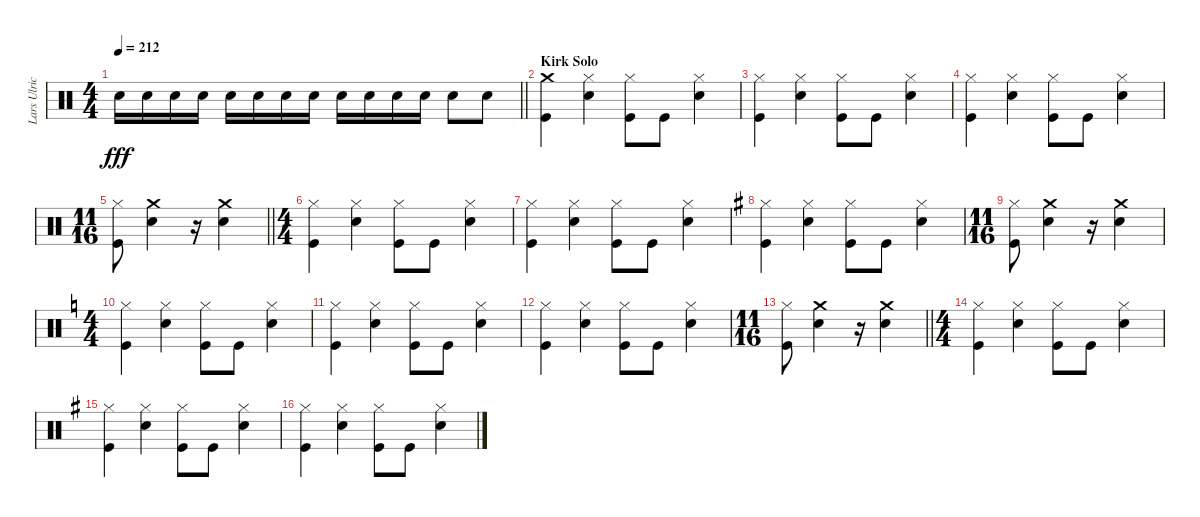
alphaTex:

\track ("Lars Ulrich" "Lars Ulric") {instrument percussion}
\staff {score}
\articulation defaults
\ts (4 4)
\tempo 212
\clef neutral
\barLineRight lightlight
\ks c "Snare (hit) 2".16{dy fff} "Snare (hit) 2".16 "Snare (hit) 2".16 "Snare (hit) 2".16 "Snare (hit) 2".16 "Snare (hit) 2".16 "Snare (hit) 2".16 "Snare (hit) 2".16 "Snare (hit) 2".16 "Snare (hit) 2".16 "Snare (hit) 2".16 "Snare (hit) 2".16 "Snare (hit) 2".8 "Snare (hit) 2".8
|
\section ("" "Kirk Solo")
("Kick (hit)" "Crash medium (hit)").4 ("Snare (hit) 2" "Hi-Hat (closed)").4 ("Hi-Hat (closed)" "Kick (hit)").8 "Kick (hit)".8 ("Snare (hit) 2" "Hi-Hat (closed)").4 |
("Hi-Hat (closed)" "Kick (hit)").4 ("Snare (hit) 2" "Hi-Hat (closed)").4 ("Kick (hit)" "Hi-Hat (closed)").8 "Kick (hit)".8 ("Snare (hit) 2" "Hi-Hat (closed)").4 |
("Kick (hit)" "Hi-Hat (closed)").4 ("Snare (hit) 2" "Hi-Hat (closed)").4 ("Kick (hit)" "Hi-Hat (closed)").8 "Kick (hit)".8 ("Snare (hit) 2" "Hi-Hat (closed)").4 |
\ts (11 16)
\barLineRight lightlight
("Hi-Hat (closed)" "Kick (hit)").8 ("Snare (hit) 2" "Crash medium (hit)").4 r.16 ("Crash medium (hit)" "Snare (hit) 2").4 |
\ts (4 4)
("Hi-Hat (closed)" "Kick (hit)").4 ("Snare (hit) 2" "Hi-Hat (closed)").4 ("Kick (hit)" "Hi-Hat (closed)").8 "Kick (hit)".8 ("Snare (hit) 2" "Hi-Hat (closed)").4 |
("Kick (hit)" "Hi-Hat (closed)").4 ("Snare (hit) 2" "Hi-Hat (closed)").4 ("Hi-Hat (closed)" "Kick (hit)").8 "Kick (hit)".8 ("Snare (hit) 2" "Hi-Hat (closed)").4 |
\ks g
("Hi-Hat (closed)" "Kick (hit)").4 ("Snare (hit) 2" "Hi-Hat (closed)").4 ("Kick (hit)" "Hi-Hat (closed)").8 "Kick (hit)".8 ("Hi-Hat (closed)" "Snare (hit) 2").4 |
\ts (11 16)
("Hi-Hat (closed)" "Kick (hit)").8 ("Snare (hit) 2" "Crash medium (hit)").4 r.16 ("Snare (hit) 2" "Crash medium (hit)").4 |
\ts (4 4)
\ks c
("Hi-Hat (closed)" "Kick (hit)").4 ("Snare (hit) 2" "Hi-Hat (closed)").4 ("Kick (hit)" "Hi-Hat (closed)").8 "Kick (hit)".8 ("Snare (hit) 2" "Hi-Hat (closed)").4 |
("Hi-Hat (closed)" "Kick (hit)").4 ("Snare (hit) 2" "Hi-Hat (closed)").4 ("Kick (hit)" "Hi-Hat (closed)").8 "Kick (hit)".8 ("Snare (hit) 2" "Hi-Hat (closed)").4 |
("Kick (hit)" "Hi-Hat (closed)").4 ("Snare (hit) 2" "Hi-Hat (closed)").4 ("Kick (hit)" "Hi-Hat (closed)").8 "Kick (hit)".8 ("Snare (hit) 2" "Hi-Hat (closed)").4 |
\ts (11 16)
\barLineRight lightlight
("Hi-Hat (closed)" "Kick (hit)").8 ("Snare (hit) 2" "Crash medium (hit)").4 r.16 ("Crash medium (hit)" "Snare (hit) 2").4 |
\ts (4 4)
("Kick (hit)" "Hi-Hat (closed)").4 ("Snare (hit) 2" "Hi-Hat (closed)").4 ("Kick (hit)" "Hi-Hat (closed)").8 "Kick (hit)".8 ("Snare (hit) 2" "Hi-Hat (closed)").4 |
\ks g
("Hi-Hat (closed)" "Kick (hit)").4 ("Snare (hit) 2" "Hi-Hat (closed)").4 ("Hi-Hat (closed)" "Kick (hit)").8 "Kick (hit)".8 ("Snare (hit) 2" "Hi-Hat (closed)").4 |
("Hi-Hat (closed)" "Kick (hit)").4 ("Snare (hit) 2" "Hi-Hat (closed)").4 ("Kick (hit)" "Hi-Hat (closed)").8 "Kick (hit)".8 ("Hi-Hat (closed)" "Snare (hit) 2").4
